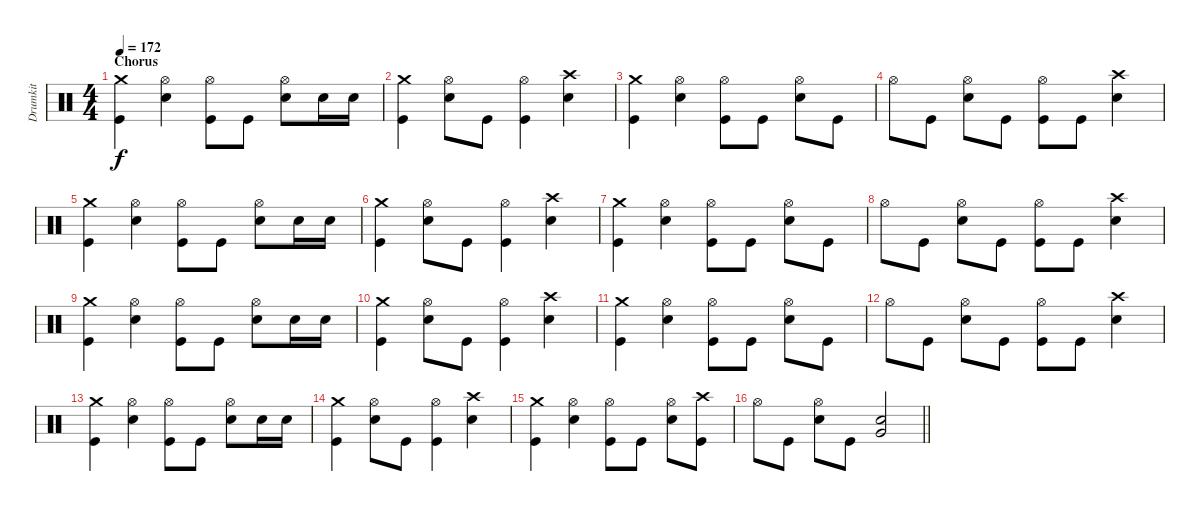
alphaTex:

\track ("Drumkit" "Drumkit") {instrument percussion}
\staff {score}
\articulation defaults
\ts (4 4)
\section ("" "Chorus")
\tempo 172
\clef neutral
\ks c
("Crash medium (hit)" "Kick (hit)").4{dy f} ("Hi-Hat (open)" "Snare (hit) 2").4 ("Hi-Hat (open)" "Kick (hit)").8 "Kick (hit)".8 ("Hi-Hat (open)" "Snare (hit) 2").8 "Snare (hit) 2".16 "Snare (hit) 2".16 |
("Crash medium (hit)" "Kick (hit)").4 ("Hi-Hat (open)" "Snare (hit) 2").8 "Kick (hit)".8 ("Hi-Hat (open)" "Kick (hit)").4 ("Crash high (hit)" "Snare (hit) 2").4 |
("Crash medium (hit)" "Kick (hit)").4 ("Hi-Hat (open)" "Snare (hit) 2").4 ("Hi-Hat (open)" "Kick (hit)").8 "Kick (hit)".8 ("Hi-Hat (open)" "Snare (hit) 2").8 "Kick (hit)".8 |
"Hi-Hat (open)".8 "Kick (hit)".8 ("Hi-Hat (open)" "Snare (hit) 2").8 "Kick (hit)".8 ("Hi-Hat (open)" "Kick (hit)").8 "Kick (hit)".8 ("Crash high (hit)" "Snare (hit) 2").4 |
("Crash medium (hit)" "Kick (hit)").4 ("Hi-Hat (open)" "Snare (hit) 2").4 ("Hi-Hat (open)" "Kick (hit)").8 "Kick (hit)".8 ("Hi-Hat (open)" "Snare (hit) 2").8 "Snare (hit) 2".16 "Snare (hit) 2".16 |
("Crash medium (hit)" "Kick (hit)").4 ("Hi-Hat (open)" "Snare (hit) 2").8 "Kick (hit)".8 ("Hi-Hat (open)" "Kick (hit)").4 ("Crash high (hit)" "Snare (hit) 2").4 |
("Crash medium (hit)" "Kick (hit)").4 ("Hi-Hat (open)" "Snare (hit) 2").4 ("Hi-Hat (open)" "Kick (hit)").8 "Kick (hit)".8 ("Hi-Hat (open)" "Snare (hit) 2").8 "Kick (hit)".8 |
"Hi-Hat (open)".8 "Kick (hit)".8 ("Hi-Hat (open)" "Snare (hit) 2").8 "Kick (hit)".8 ("Hi-Hat (open)" "Kick (hit)").8 "Kick (hit)".8 ("Crash high (hit)" "Snare (hit) 2").4 |
("Crash medium (hit)" "Kick (hit)").4 ("Hi-Hat (open)" "Snare (hit) 2").4 ("Hi-Hat (open)" "Kick (hit)").8 "Kick (hit)".8 ("Hi-Hat (open)" "Snare (hit) 2").8 "Snare (hit) 2".16 "Snare (hit) 2".16 |
("Crash medium (hit)" "Kick (hit)").4 ("Hi-Hat (open)" "Snare (hit) 2").8 "Kick (hit)".8 ("Hi-Hat (open)" "Kick (hit)").4 ("Crash high (hit)" "Snare (hit) 2").4 |
("Crash medium (hit)" "Kick (hit)").4 ("Hi-Hat (open)" "Snare (hit) 2").4 ("Hi-Hat (open)" "Kick (hit)").8 "Kick (hit)".8 ("Hi-Hat (open)" "Snare (hit) 2").8 "Kick (hit)".8 |
"Hi-Hat (open)".8 "Kick (hit)".8 ("Hi-Hat (open)" "Snare (hit) 2").8 "Kick (hit)".8 ("Hi-Hat (open)" "Kick (hit)").8 "Kick (hit)".8 ("Crash high (hit)" "Snare (hit) 2").4 |
("Crash medium (hit)" "Kick (hit)").4 ("Hi-Hat (open)" "Snare (hit) 2").4 ("Hi-Hat (open)" "Kick (hit)").8 "Kick (hit)".8 ("Hi-Hat (open)" "Snare (hit) 2").8 "Snare (hit) 2".16 "Snare (hit) 2".16 |
("Crash medium (hit)" "Kick (hit)").4 ("Hi-Hat (open)" "Snare (hit) 2").8 "Kick (hit)".8 ("Hi-Hat (open)" "Kick (hit)").4 ("Crash high (hit)" "Snare (hit) 2").4 |
("Crash medium (hit)" "Kick (hit)").4 ("Hi-Hat (open)" "Snare (hit) 2").4 ("Hi-Hat (open)" "Kick (hit)").8 "Kick (hit)".8 ("Hi-Hat (open)" "Snare (hit) 2").8 ("Crash high (hit)" "Kick (hit)").8 |
\barLineRight lightlight "Hi-Hat (open)".8 "Kick (hit)".8
("Hi-Hat (open)" "Snare (hit) 2").8 "Kick (hit)".8 ("Very Low Tom (hit)" "Snare (hit) 2").2
